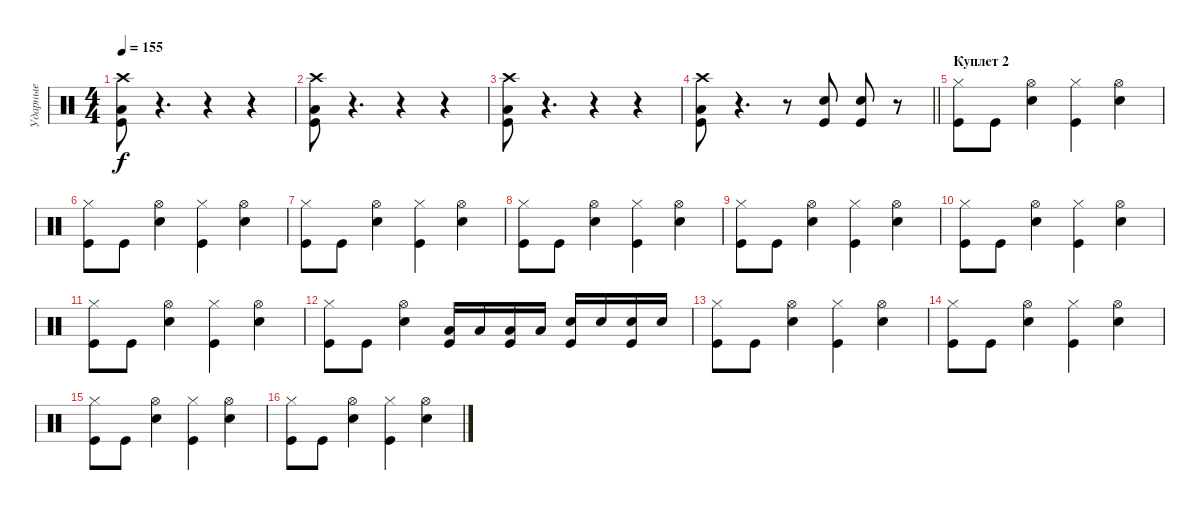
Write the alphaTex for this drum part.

\track ("Ударные" "Ударные") {instrument percussion}
\staff {score}
\articulation defaults
\ts (4 4)
\tempo 155
\clef neutral
\ks c
("Crash high (hit)" "Low Tom (hit)" "Kick (hit)").8{dy f} r.4{d} r.4 r.4 |
("Crash high (hit)" "Low Tom (hit)" "Kick (hit)").8 r.4{d} r.4 r.4 |
("Crash high (hit)" "Low Tom (hit)" "Kick (hit)").8 r.4{d} r.4 r.4 |
\barLineRight lightlight
("Crash high (hit)" "Low Tom (hit)" "Kick (hit)").8 r.4{d} r.8 ("Snare (hit) 2" "Kick (hit)").8 ("Snare (hit) 2" "Kick (hit)").8 r.8 |
\section ("" "Куплет 2")
("Hi-Hat (closed)" "Kick (hit)").8 "Kick (hit)".8 ("Hi-Hat (open)" "Snare (hit) 2").4 ("Hi-Hat (closed)" "Kick (hit)").4 ("Hi-Hat (open)" "Snare (hit) 2").4 |
("Hi-Hat (closed)" "Kick (hit)").8 "Kick (hit)".8 ("Hi-Hat (open)" "Snare (hit) 2").4 ("Hi-Hat (closed)" "Kick (hit)").4 ("Hi-Hat (open)" "Snare (hit) 2").4 |
("Hi-Hat (closed)" "Kick (hit)").8 "Kick (hit)".8 ("Hi-Hat (open)" "Snare (hit) 2").4 ("Hi-Hat (closed)" "Kick (hit)").4 ("Hi-Hat (open)" "Snare (hit) 2").4 |
("Hi-Hat (closed)" "Kick (hit)").8 "Kick (hit)".8 ("Hi-Hat (open)" "Snare (hit) 2").4 ("Hi-Hat (closed)" "Kick (hit)").4 ("Hi-Hat (open)" "Snare (hit) 2").4 |
("Hi-Hat (closed)" "Kick (hit)").8 "Kick (hit)".8 ("Hi-Hat (open)" "Snare (hit) 2").4 ("Hi-Hat (closed)" "Kick (hit)").4 ("Hi-Hat (open)" "Snare (hit) 2").4 |
("Hi-Hat (closed)" "Kick (hit)").8 "Kick (hit)".8 ("Hi-Hat (open)" "Snare (hit) 2").4 ("Hi-Hat (closed)" "Kick (hit)").4 ("Hi-Hat (open)" "Snare (hit) 2").4 |
("Hi-Hat (closed)" "Kick (hit)").8 "Kick (hit)".8 ("Hi-Hat (open)" "Snare (hit) 2").4 ("Hi-Hat (closed)" "Kick (hit)").4 ("Hi-Hat (open)" "Snare (hit) 2").4 |
("Hi-Hat (closed)" "Kick (hit)").8 "Kick (hit)".8 ("Hi-Hat (open)" "Snare (hit) 2").4 ("Low Tom (hit)" "Kick (hit)").16 "Low Tom (hit)".16 ("Low Tom (hit)" "Kick (hit)").16 "Low Tom (hit)".16 ("Snare (hit) 2" "Kick (hit)").16 "Snare (hit) 2".16 ("Snare (hit) 2" "Kick (hit)").16 "Snare (hit) 2".16 |
("Hi-Hat (closed)" "Kick (hit)").8 "Kick (hit)".8 ("Hi-Hat (open)" "Snare (hit) 2").4 ("Hi-Hat (closed)" "Kick (hit)").4 ("Hi-Hat (open)" "Snare (hit) 2").4 |
("Hi-Hat (closed)" "Kick (hit)").8 "Kick (hit)".8 ("Hi-Hat (open)" "Snare (hit) 2").4 ("Hi-Hat (closed)" "Kick (hit)").4 ("Hi-Hat (open)" "Snare (hit) 2").4 |
("Hi-Hat (closed)" "Kick (hit)").8 "Kick (hit)".8 ("Hi-Hat (open)" "Snare (hit) 2").4 ("Hi-Hat (closed)" "Kick (hit)").4 ("Hi-Hat (open)" "Snare (hit) 2").4 |
("Hi-Hat (closed)" "Kick (hit)").8 "Kick (hit)".8 ("Hi-Hat (open)" "Snare (hit) 2").4 ("Hi-Hat (closed)" "Kick (hit)").4 ("Hi-Hat (open)" "Snare (hit) 2").4
